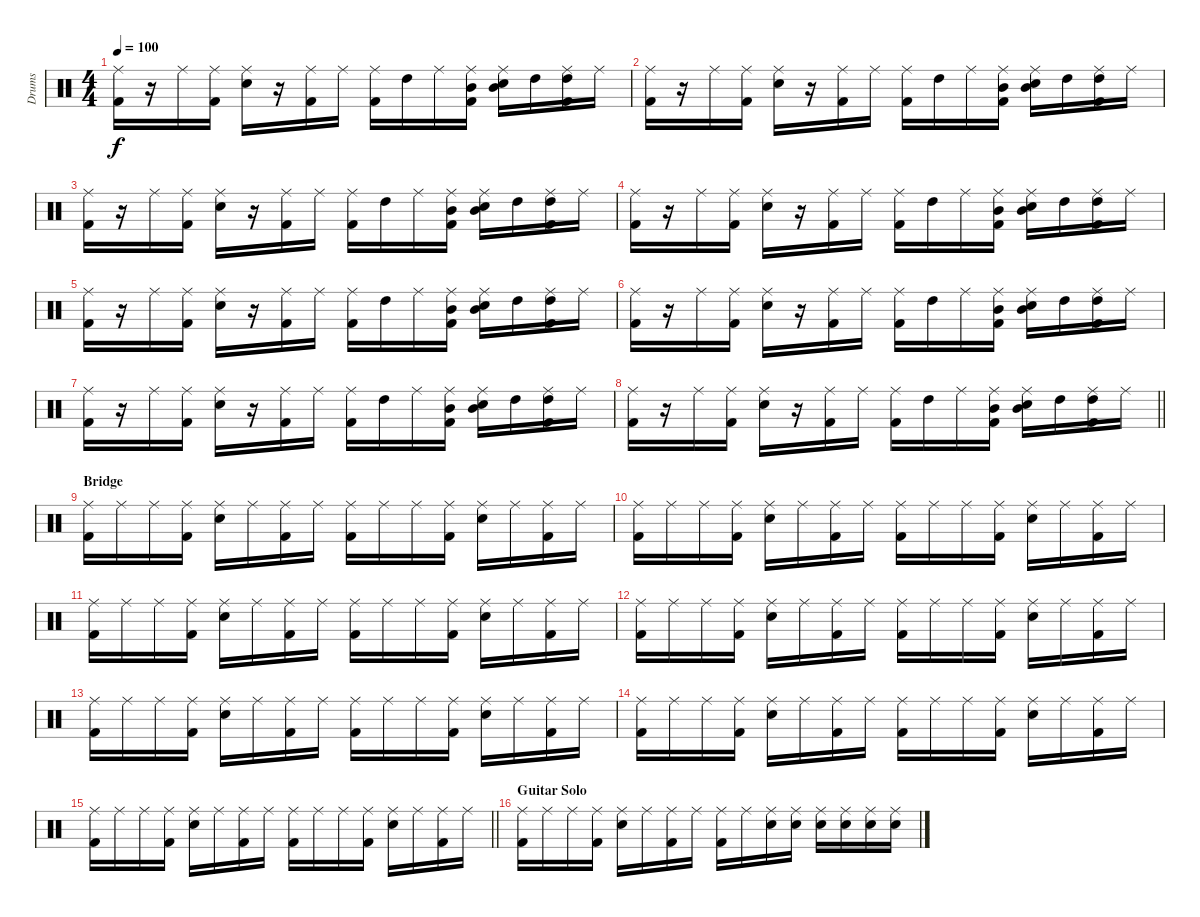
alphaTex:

\track ("Drums" "Drums") {instrument percussion}
\staff {score}
\articulation defaults
\ts (4 4)
\tempo 100
\clef neutral
\ks c
("Ride (middle)" "Kick (hit) 2").16{dy f} r.16 "Ride (middle)".16 ("Ride (middle)" "Kick (hit) 2").16 ("Ride (middle)" "Snare (hit) 2").16 r.16 ("Ride (middle)" "Kick (hit) 2").16 "Ride (middle)".16 ("Ride (middle)" "Kick (hit) 2").16 "High Tom (hit)".16 "Ride (middle)".16 ("Ride (middle)" "Mid Tom (hit)" "Kick (hit) 2").16 ("Ride (middle)" "Mid Tom (hit)" "Snare (hit) 2").16 "High Tom (hit)".16 ("Ride (middle)" "High Tom (hit)" "Kick (hit) 2").16 "Ride (middle)".16 |
("Ride (middle)" "Kick (hit) 2").16 r.16 "Ride (middle)".16 ("Ride (middle)" "Kick (hit) 2").16 ("Ride (middle)" "Snare (hit) 2").16 r.16 ("Ride (middle)" "Kick (hit) 2").16 "Ride (middle)".16 ("Ride (middle)" "Kick (hit) 2").16 "High Tom (hit)".16 "Ride (middle)".16 ("Ride (middle)" "Mid Tom (hit)" "Kick (hit) 2").16 ("Ride (middle)" "Mid Tom (hit)" "Snare (hit) 2").16 "High Tom (hit)".16 ("Ride (middle)" "High Tom (hit)" "Kick (hit) 2").16 "Ride (middle)".16 |
("Ride (middle)" "Kick (hit) 2").16 r.16 "Ride (middle)".16 ("Ride (middle)" "Kick (hit) 2").16 ("Ride (middle)" "Snare (hit) 2").16 r.16 ("Ride (middle)" "Kick (hit) 2").16 "Ride (middle)".16 ("Ride (middle)" "Kick (hit) 2").16 "High Tom (hit)".16 "Ride (middle)".16 ("Ride (middle)" "Mid Tom (hit)" "Kick (hit) 2").16 ("Ride (middle)" "Mid Tom (hit)" "Snare (hit) 2").16 "High Tom (hit)".16 ("Ride (middle)" "High Tom (hit)" "Kick (hit) 2").16 "Ride (middle)".16 |
("Ride (middle)" "Kick (hit) 2").16 r.16 "Ride (middle)".16 ("Ride (middle)" "Kick (hit) 2").16 ("Ride (middle)" "Snare (hit) 2").16 r.16 ("Ride (middle)" "Kick (hit) 2").16 "Ride (middle)".16 ("Ride (middle)" "Kick (hit) 2").16 "High Tom (hit)".16 "Ride (middle)".16 ("Ride (middle)" "Mid Tom (hit)" "Kick (hit) 2").16 ("Ride (middle)" "Mid Tom (hit)" "Snare (hit) 2").16 "High Tom (hit)".16 ("Ride (middle)" "High Tom (hit)" "Kick (hit) 2").16 "Ride (middle)".16 |
("Ride (middle)" "Kick (hit) 2").16 r.16 "Ride (middle)".16 ("Ride (middle)" "Kick (hit) 2").16 ("Ride (middle)" "Snare (hit) 2").16 r.16 ("Ride (middle)" "Kick (hit) 2").16 "Ride (middle)".16 ("Ride (middle)" "Kick (hit) 2").16 "High Tom (hit)".16 "Ride (middle)".16 ("Ride (middle)" "Mid Tom (hit)" "Kick (hit) 2").16 ("Ride (middle)" "Mid Tom (hit)" "Snare (hit) 2").16 "High Tom (hit)".16 ("Ride (middle)" "High Tom (hit)" "Kick (hit) 2").16 "Ride (middle)".16 |
("Ride (middle)" "Kick (hit) 2").16 r.16 "Ride (middle)".16 ("Ride (middle)" "Kick (hit) 2").16 ("Ride (middle)" "Snare (hit) 2").16 r.16 ("Ride (middle)" "Kick (hit) 2").16 "Ride (middle)".16 ("Ride (middle)" "Kick (hit) 2").16 "High Tom (hit)".16 "Ride (middle)".16 ("Ride (middle)" "Mid Tom (hit)" "Kick (hit) 2").16 ("Ride (middle)" "Mid Tom (hit)" "Snare (hit) 2").16 "High Tom (hit)".16 ("Ride (middle)" "High Tom (hit)" "Kick (hit) 2").16 "Ride (middle)".16 |
("Ride (middle)" "Kick (hit) 2").16 r.16 "Ride (middle)".16 ("Ride (middle)" "Kick (hit) 2").16 ("Ride (middle)" "Snare (hit) 2").16 r.16 ("Ride (middle)" "Kick (hit) 2").16 "Ride (middle)".16 ("Ride (middle)" "Kick (hit) 2").16 "High Tom (hit)".16 "Ride (middle)".16 ("Ride (middle)" "Mid Tom (hit)" "Kick (hit) 2").16 ("Ride (middle)" "Mid Tom (hit)" "Snare (hit) 2").16 "High Tom (hit)".16 ("Ride (middle)" "High Tom (hit)" "Kick (hit) 2").16 "Ride (middle)".16 |
\barLineRight lightlight
("Ride (middle)" "Kick (hit) 2").16 r.16 "Ride (middle)".16 ("Ride (middle)" "Kick (hit) 2").16 ("Ride (middle)" "Snare (hit) 2").16 r.16 ("Ride (middle)" "Kick (hit) 2").16 "Ride (middle)".16 ("Ride (middle)" "Kick (hit) 2").16 "High Tom (hit)".16 "Ride (middle)".16 ("Ride (middle)" "Mid Tom (hit)" "Kick (hit) 2").16 ("Ride (middle)" "Mid Tom (hit)" "Snare (hit) 2").16 "High Tom (hit)".16 ("Ride (middle)" "High Tom (hit)" "Kick (hit) 2").16 "Ride (middle)".16 |
\section ("" "Bridge")
("Ride (middle)" "Kick (hit) 2").16 "Ride (middle)".16 "Ride (middle)".16 ("Ride (middle)" "Kick (hit) 2").16 ("Ride (middle)" "Snare (hit) 2").16 "Ride (middle)".16 ("Ride (middle)" "Kick (hit) 2").16 "Ride (middle)".16 ("Ride (middle)" "Kick (hit) 2").16 "Ride (middle)".16 "Ride (middle)".16 ("Ride (middle)" "Kick (hit) 2").16 ("Ride (middle)" "Snare (hit) 2").16 "Ride (middle)".16 ("Ride (middle)" "Kick (hit) 2").16 "Ride (middle)".16 |
("Ride (middle)" "Kick (hit) 2").16 "Ride (middle)".16 "Ride (middle)".16 ("Ride (middle)" "Kick (hit) 2").16 ("Ride (middle)" "Snare (hit) 2").16 "Ride (middle)".16 ("Ride (middle)" "Kick (hit) 2").16 "Ride (middle)".16 ("Ride (middle)" "Kick (hit) 2").16 "Ride (middle)".16 "Ride (middle)".16 ("Ride (middle)" "Kick (hit) 2").16 ("Ride (middle)" "Snare (hit) 2").16 "Ride (middle)".16 ("Ride (middle)" "Kick (hit) 2").16 "Ride (middle)".16 |
("Ride (middle)" "Kick (hit) 2").16 "Ride (middle)".16 "Ride (middle)".16 ("Ride (middle)" "Kick (hit) 2").16 ("Ride (middle)" "Snare (hit) 2").16 "Ride (middle)".16 ("Ride (middle)" "Kick (hit) 2").16 "Ride (middle)".16 ("Ride (middle)" "Kick (hit) 2").16 "Ride (middle)".16 "Ride (middle)".16 ("Ride (middle)" "Kick (hit) 2").16 ("Ride (middle)" "Snare (hit) 2").16 "Ride (middle)".16 ("Ride (middle)" "Kick (hit) 2").16 "Ride (middle)".16 |
("Ride (middle)" "Kick (hit) 2").16 "Ride (middle)".16 "Ride (middle)".16 ("Ride (middle)" "Kick (hit) 2").16 ("Ride (middle)" "Snare (hit) 2").16 "Ride (middle)".16 ("Ride (middle)" "Kick (hit) 2").16 "Ride (middle)".16 ("Ride (middle)" "Kick (hit) 2").16 "Ride (middle)".16 "Ride (middle)".16 ("Ride (middle)" "Kick (hit) 2").16 ("Ride (middle)" "Snare (hit) 2").16 "Ride (middle)".16 ("Ride (middle)" "Kick (hit) 2").16 "Ride (middle)".16 |
("Ride (middle)" "Kick (hit) 2").16 "Ride (middle)".16 "Ride (middle)".16 ("Ride (middle)" "Kick (hit) 2").16 ("Ride (middle)" "Snare (hit) 2").16 "Ride (middle)".16 ("Ride (middle)" "Kick (hit) 2").16 "Ride (middle)".16 ("Ride (middle)" "Kick (hit) 2").16 "Ride (middle)".16 "Ride (middle)".16 ("Ride (middle)" "Kick (hit) 2").16 ("Ride (middle)" "Snare (hit) 2").16 "Ride (middle)".16 ("Ride (middle)" "Kick (hit) 2").16 "Ride (middle)".16 |
("Ride (middle)" "Kick (hit) 2").16 "Ride (middle)".16 "Ride (middle)".16 ("Ride (middle)" "Kick (hit) 2").16 ("Ride (middle)" "Snare (hit) 2").16 "Ride (middle)".16 ("Ride (middle)" "Kick (hit) 2").16 "Ride (middle)".16 ("Ride (middle)" "Kick (hit) 2").16 "Ride (middle)".16 "Ride (middle)".16 ("Ride (middle)" "Kick (hit) 2").16 ("Ride (middle)" "Snare (hit) 2").16 "Ride (middle)".16 ("Ride (middle)" "Kick (hit) 2").16 "Ride (middle)".16 |
\barLineRight lightlight
("Ride (middle)" "Kick (hit) 2").16 "Ride (middle)".16 "Ride (middle)".16 ("Ride (middle)" "Kick (hit) 2").16 ("Ride (middle)" "Snare (hit) 2").16 "Ride (middle)".16 ("Ride (middle)" "Kick (hit) 2").16 "Ride (middle)".16 ("Ride (middle)" "Kick (hit) 2").16 "Ride (middle)".16 "Ride (middle)".16 ("Ride (middle)" "Kick (hit) 2").16 ("Ride (middle)" "Snare (hit) 2").16 "Ride (middle)".16 ("Ride (middle)" "Kick (hit) 2").16 "Ride (middle)".16 |
\section ("" "Guitar Solo")
("Ride (middle)" "Kick (hit) 2").16 "Ride (middle)".16 "Ride (middle)".16 ("Ride (middle)" "Kick (hit) 2").16 ("Ride (middle)" "Snare (hit) 2").16 "Ride (middle)".16 ("Ride (middle)" "Kick (hit) 2").16 "Ride (middle)".16 ("Ride (middle)" "Kick (hit) 2").16 "Ride (middle)".16 ("Ride (middle)" "Snare (hit) 2").16 ("Ride (middle)" "Snare (hit) 2").16 ("Ride (middle)" "Snare (hit) 2").16 ("Ride (middle)" "Snare (hit) 2").16 ("Ride (middle)" "Snare (hit) 2").16 ("Ride (middle)" "Snare (hit) 2").16
